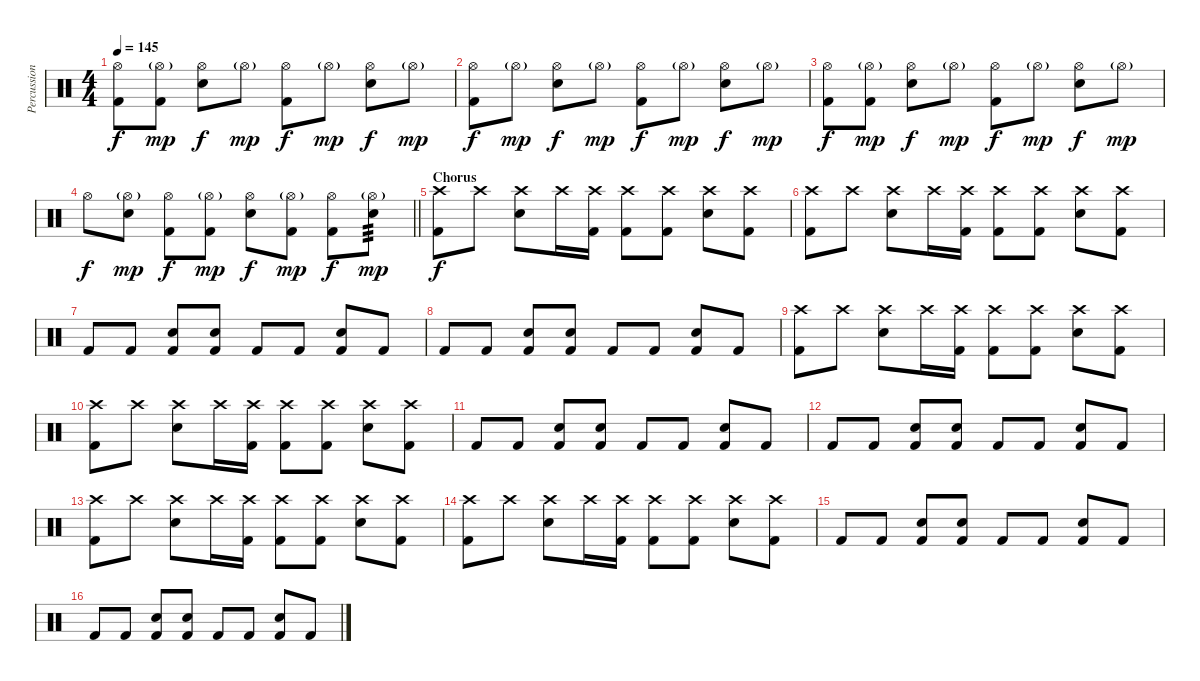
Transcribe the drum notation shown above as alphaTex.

\track ("Percussion" "Percussion") {instrument percussion}
\staff {score}
\articulation defaults
\ts (4 4)
\tempo 145
\clef neutral
\ks c
("Hi-Hat (open)" "Kick (hit) 2").8{dy f} ("Hi-Hat (open)"{g} "Kick (hit) 2").8{dy mp} ("Snare (hit) 2" "Hi-Hat (open)").8{dy f} "Hi-Hat (open)"{g}.8{dy mp} ("Hi-Hat (open)" "Kick (hit) 2").8{dy f} "Hi-Hat (open)"{g}.8{dy mp} ("Snare (hit) 2" "Hi-Hat (open)").8{dy f} "Hi-Hat (open)"{g}.8{dy mp} |
("Hi-Hat (open)" "Kick (hit) 2").8{dy f} "Hi-Hat (open)"{g}.8{dy mp} ("Snare (hit) 2" "Hi-Hat (open)").8{dy f} "Hi-Hat (open)"{g}.8{dy mp} ("Hi-Hat (open)" "Kick (hit) 2").8{dy f} "Hi-Hat (open)"{g}.8{dy mp} ("Snare (hit) 2" "Hi-Hat (open)").8{dy f} "Hi-Hat (open)"{g}.8{dy mp} |
("Hi-Hat (open)" "Kick (hit) 2").8{dy f} ("Hi-Hat (open)"{g} "Kick (hit) 2").8{dy mp} ("Snare (hit) 2" "Hi-Hat (open)").8{dy f} "Hi-Hat (open)"{g}.8{dy mp} ("Hi-Hat (open)" "Kick (hit) 2").8{dy f} "Hi-Hat (open)"{g}.8{dy mp} ("Snare (hit) 2" "Hi-Hat (open)").8{dy f} "Hi-Hat (open)"{g}.8{dy mp} |
\barLineRight lightlight "Hi-Hat (open)".8{dy f}
("Snare (hit) 2" "Hi-Hat (open)"{g}).8{dy mp} ("Hi-Hat (open)" "Kick (hit) 2").8{dy f} ("Hi-Hat (open)"{g} "Kick (hit) 2").8{dy mp} ("Snare (hit) 2" "Hi-Hat (open)").8{dy f} ("Hi-Hat (open)"{g} "Kick (hit) 2").8{dy mp} ("Hi-Hat (open)" "Kick (hit) 2").8{dy f} ("Snare (hit) 2" "Hi-Hat (open)"{g}).8{tp 3 dy mp} |
\section ("" "Chorus")
("Crash high (hit)" "Kick (hit) 2").8{dy f} "Crash high (hit)".8 ("Snare (hit) 2" "Crash high (hit)").8 "Crash high (hit)".16 ("Kick (hit) 2" "Crash high (hit)").16 ("Crash high (hit)" "Kick (hit) 2").8 ("Crash high (hit)" "Kick (hit) 2").8 ("Snare (hit) 2" "Crash high (hit)").8 ("Crash high (hit)" "Kick (hit) 2").8 |
("Crash high (hit)" "Kick (hit) 2").8 "Crash high (hit)".8 ("Snare (hit) 2" "Crash high (hit)").8 "Crash high (hit)".16 ("Kick (hit) 2" "Crash high (hit)").16 ("Crash high (hit)" "Kick (hit) 2").8 ("Crash high (hit)" "Kick (hit) 2").8 ("Snare (hit) 2" "Crash high (hit)").8 ("Crash high (hit)" "Kick (hit) 2").8 |
"Kick (hit) 2".8 "Kick (hit) 2".8 ("Snare (hit) 2" "Kick (hit) 2").8 ("Snare (hit) 2" "Kick (hit) 2").8 "Kick (hit) 2".8 "Kick (hit) 2".8 ("Snare (hit) 2" "Kick (hit) 2").8 "Kick (hit) 2".8 |
"Kick (hit) 2".8 "Kick (hit) 2".8 ("Snare (hit) 2" "Kick (hit) 2").8 ("Snare (hit) 2" "Kick (hit) 2").8 "Kick (hit) 2".8 "Kick (hit) 2".8 ("Snare (hit) 2" "Kick (hit) 2").8 "Kick (hit) 2".8 |
("Crash high (hit)" "Kick (hit) 2").8 "Crash high (hit)".8 ("Snare (hit) 2" "Crash high (hit)").8 "Crash high (hit)".16 ("Kick (hit) 2" "Crash high (hit)").16 ("Crash high (hit)" "Kick (hit) 2").8 ("Crash high (hit)" "Kick (hit) 2").8 ("Snare (hit) 2" "Crash high (hit)").8 ("Crash high (hit)" "Kick (hit) 2").8 |
("Crash high (hit)" "Kick (hit) 2").8 "Crash high (hit)".8 ("Snare (hit) 2" "Crash high (hit)").8 "Crash high (hit)".16 ("Kick (hit) 2" "Crash high (hit)").16 ("Crash high (hit)" "Kick (hit) 2").8 ("Crash high (hit)" "Kick (hit) 2").8 ("Snare (hit) 2" "Crash high (hit)").8 ("Crash high (hit)" "Kick (hit) 2").8 |
"Kick (hit) 2".8 "Kick (hit) 2".8 ("Snare (hit) 2" "Kick (hit) 2").8 ("Snare (hit) 2" "Kick (hit) 2").8 "Kick (hit) 2".8 "Kick (hit) 2".8 ("Snare (hit) 2" "Kick (hit) 2").8 "Kick (hit) 2".8 |
"Kick (hit) 2".8 "Kick (hit) 2".8 ("Snare (hit) 2" "Kick (hit) 2").8 ("Snare (hit) 2" "Kick (hit) 2").8 "Kick (hit) 2".8 "Kick (hit) 2".8 ("Snare (hit) 2" "Kick (hit) 2").8 "Kick (hit) 2".8 |
("Crash high (hit)" "Kick (hit) 2").8 "Crash high (hit)".8 ("Snare (hit) 2" "Crash high (hit)").8 "Crash high (hit)".16 ("Kick (hit) 2" "Crash high (hit)").16 ("Crash high (hit)" "Kick (hit) 2").8 ("Crash high (hit)" "Kick (hit) 2").8 ("Snare (hit) 2" "Crash high (hit)").8 ("Crash high (hit)" "Kick (hit) 2").8 |
("Crash high (hit)" "Kick (hit) 2").8 "Crash high (hit)".8 ("Snare (hit) 2" "Crash high (hit)").8 "Crash high (hit)".16 ("Kick (hit) 2" "Crash high (hit)").16 ("Crash high (hit)" "Kick (hit) 2").8 ("Crash high (hit)" "Kick (hit) 2").8 ("Snare (hit) 2" "Crash high (hit)").8 ("Crash high (hit)" "Kick (hit) 2").8 |
"Kick (hit) 2".8 "Kick (hit) 2".8 ("Snare (hit) 2" "Kick (hit) 2").8 ("Snare (hit) 2" "Kick (hit) 2").8 "Kick (hit) 2".8 "Kick (hit) 2".8 ("Snare (hit) 2" "Kick (hit) 2").8 "Kick (hit) 2".8 |
"Kick (hit) 2".8 "Kick (hit) 2".8 ("Snare (hit) 2" "Kick (hit) 2").8 ("Snare (hit) 2" "Kick (hit) 2").8 "Kick (hit) 2".8 "Kick (hit) 2".8 ("Snare (hit) 2" "Kick (hit) 2").8 "Kick (hit) 2".8
